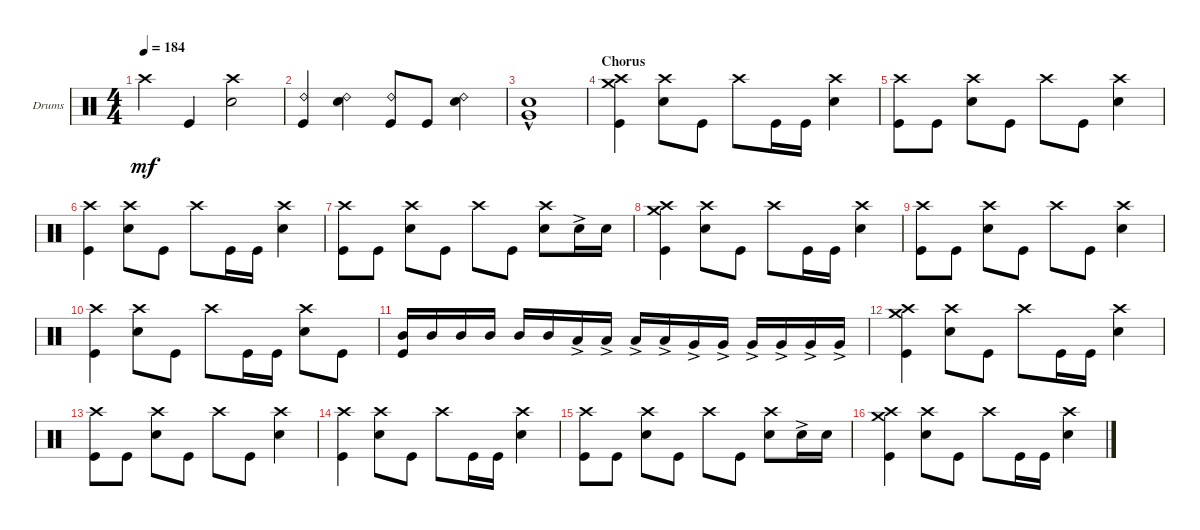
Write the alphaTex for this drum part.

\defaultSystemsLayout 4
\bracketExtendMode groupsimilarinstruments
\firstSystemTrackNameOrientation horizontal
\otherSystemsTrackNameOrientation horizontal
\track ("Drums (Phoenix)" "Drums") {instrument percussion}
\staff {score}
\articulation defaults
\ts (4 4)
\tempo 184
\clef neutral
\ks c "Crash high (hit)".4{dy mf} "Kick (hit)".4
("Snare (hit) 2" "Crash high (hit)").2 |
("Kick (hit)" "Ride (bell) 2").4 ("Snare (hit) 2" "Ride (bell) 2").4 ("Kick (hit)" "Ride (bell) 2").8 "Kick (hit)".8 ("Snare (hit) 2" "Ride (bell) 2").4 |
("Snare (hit) 2"{hac} "Very Low Tom (hit)").1 |
\section ("" "Chorus")
("Kick (hit)" "Crash high (hit)" "Crash medium (hit)").4 ("Snare (hit) 2" "Crash high (hit)").8 "Kick (hit)".8 "Crash high (hit)".8 "Kick (hit)".16 "Kick (hit)".16 ("Snare (hit) 2" "Crash high (hit)").4 |
("Kick (hit)" "Crash high (hit)").8 "Kick (hit)".8 ("Snare (hit) 2" "Crash high (hit)").8 "Kick (hit)".8 "Crash high (hit)".8 "Kick (hit)".8 ("Snare (hit) 2" "Crash high (hit)").4 |
("Kick (hit)" "Crash high (hit)").4 ("Snare (hit) 2" "Crash high (hit)").8 "Kick (hit)".8 "Crash high (hit)".8 "Kick (hit)".16 "Kick (hit)".16 ("Snare (hit) 2" "Crash high (hit)").4 |
("Kick (hit)" "Crash high (hit)").8 "Kick (hit)".8 ("Snare (hit) 2" "Crash high (hit)").8 "Kick (hit)".8 "Crash high (hit)".8 "Kick (hit)".8 ("Snare (hit) 2" "Crash high (hit)").8 "Snare (hit) 2"{ac}.16 "Snare (hit) 2".16 |
("Kick (hit)" "Crash high (hit)" "Crash medium (hit)").4 ("Snare (hit) 2" "Crash high (hit)").8 "Kick (hit)".8 "Crash high (hit)".8 "Kick (hit)".16 "Kick (hit)".16 ("Snare (hit) 2" "Crash high (hit)").4 |
("Kick (hit)" "Crash high (hit)").8 "Kick (hit)".8 ("Snare (hit) 2" "Crash high (hit)").8 "Kick (hit)".8 "Crash high (hit)".8 "Kick (hit)".8 ("Snare (hit) 2" "Crash high (hit)").4 |
("Kick (hit)" "Crash high (hit)").4 ("Snare (hit) 2" "Crash high (hit)").8 "Kick (hit)".8 "Crash high (hit)".8 "Kick (hit)".16 "Kick (hit)".16 ("Snare (hit) 2" "Crash high (hit)").8 "Kick (hit)".8 |
("Mid Tom (hit)" "Kick (hit)").16 "Mid Tom (hit)".16 "Mid Tom (hit)".16 "Mid Tom (hit)".16 "Mid Tom (hit)".16 "Mid Tom (hit)".16 "Low Tom (hit)"{ac}.16 "Low Tom (hit)"{ac}.16 "Low Tom (hit)"{ac}.16 "Low Tom (hit)"{ac}.16 "Very Low Tom (hit)"{ac}.16 "Very Low Tom (hit)"{ac}.16 "Very Low Tom (hit)"{ac}.16 "Very Low Tom (hit)"{ac}.16 "Very Low Tom (hit)"{ac}.16 "Very Low Tom (hit)"{ac}.16 |
("Kick (hit)" "Crash high (hit)" "Crash medium (hit)").4 ("Snare (hit) 2" "Crash high (hit)").8 "Kick (hit)".8 "Crash high (hit)".8 "Kick (hit)".16 "Kick (hit)".16 ("Snare (hit) 2" "Crash high (hit)").4 |
("Kick (hit)" "Crash high (hit)").8 "Kick (hit)".8 ("Snare (hit) 2" "Crash high (hit)").8 "Kick (hit)".8 "Crash high (hit)".8 "Kick (hit)".8 ("Snare (hit) 2" "Crash high (hit)").4 |
("Kick (hit)" "Crash high (hit)").4 ("Snare (hit) 2" "Crash high (hit)").8 "Kick (hit)".8 "Crash high (hit)".8 "Kick (hit)".16 "Kick (hit)".16 ("Snare (hit) 2" "Crash high (hit)").4 |
("Kick (hit)" "Crash high (hit)").8 "Kick (hit)".8 ("Snare (hit) 2" "Crash high (hit)").8 "Kick (hit)".8 "Crash high (hit)".8 "Kick (hit)".8 ("Snare (hit) 2" "Crash high (hit)").8 "Snare (hit) 2"{ac}.16 "Snare (hit) 2".16 |
("Kick (hit)" "Crash high (hit)" "Crash medium (hit)").4 ("Snare (hit) 2" "Crash high (hit)").8 "Kick (hit)".8 "Crash high (hit)".8 "Kick (hit)".16 "Kick (hit)".16 ("Snare (hit) 2" "Crash high (hit)").4
